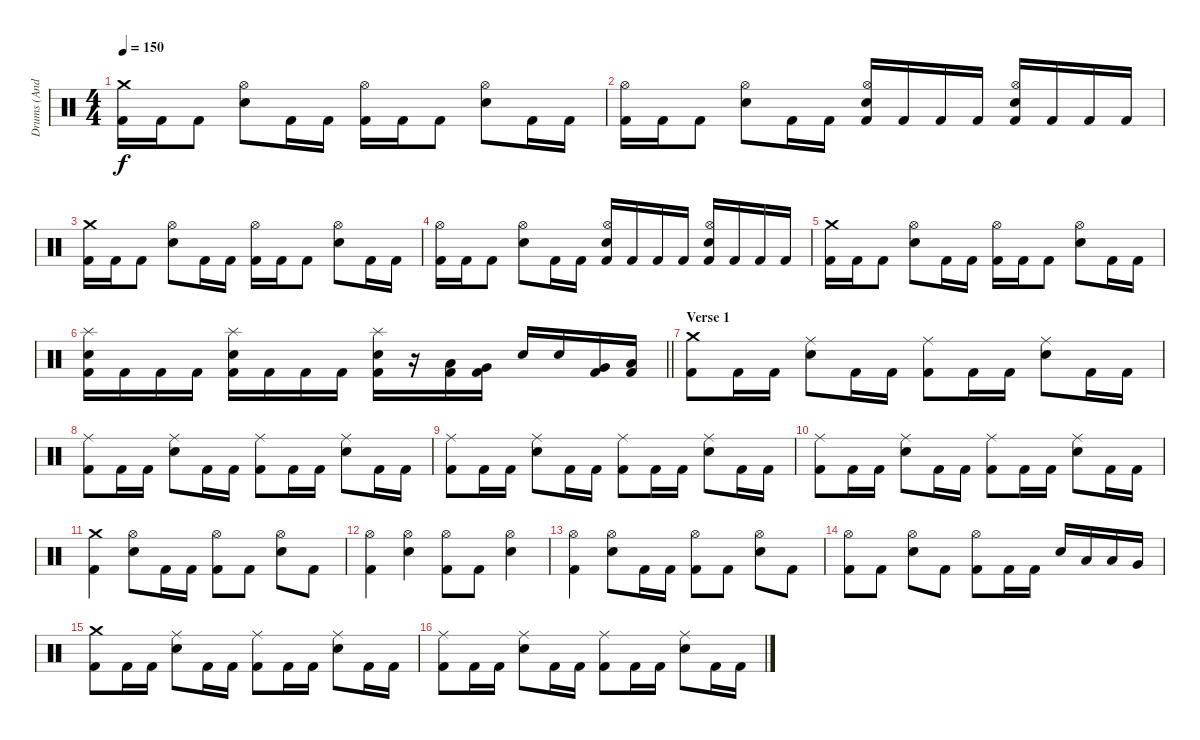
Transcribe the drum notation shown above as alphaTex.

\track ("Drums (Andy C)" "Drums (And") {instrument percussion}
\staff
\articulation defaults
\ts (4 4)
\tempo 150
\clef neutral
\ks c
("Crash medium (hit)" "Kick (hit) 2").16{dy f} "Kick (hit) 2".16 "Kick (hit) 2".8 ("Hi-Hat (open)" "Electric Snare (hit)").8 "Kick (hit) 2".16 "Kick (hit) 2".16 ("Hi-Hat (open)" "Kick (hit) 2").16 "Kick (hit) 2".16 "Kick (hit) 2".8 ("Hi-Hat (open)" "Electric Snare (hit)").8 "Kick (hit) 2".16 "Kick (hit) 2".16 |
("Hi-Hat (open)" "Kick (hit) 2").16 "Kick (hit) 2".16 "Kick (hit) 2".8 ("Hi-Hat (open)" "Electric Snare (hit)").8 "Kick (hit) 2".16 "Kick (hit) 2".16 ("Hi-Hat (open)" "Kick (hit) 2" "Electric Snare (hit)").16 "Kick (hit) 2".16 "Kick (hit) 2".16 "Kick (hit) 2".16 ("Hi-Hat (open)" "Kick (hit) 2" "Electric Snare (hit)").16 "Kick (hit) 2".16 "Kick (hit) 2".16 "Kick (hit) 2".16 |
("Crash medium (hit)" "Kick (hit) 2").16 "Kick (hit) 2".16 "Kick (hit) 2".8 ("Hi-Hat (open)" "Electric Snare (hit)").8 "Kick (hit) 2".16 "Kick (hit) 2".16 ("Hi-Hat (open)" "Kick (hit) 2").16 "Kick (hit) 2".16 "Kick (hit) 2".8 ("Hi-Hat (open)" "Electric Snare (hit)").8 "Kick (hit) 2".16 "Kick (hit) 2".16 |
("Hi-Hat (open)" "Kick (hit) 2").16 "Kick (hit) 2".16 "Kick (hit) 2".8 ("Hi-Hat (open)" "Electric Snare (hit)").8 "Kick (hit) 2".16 "Kick (hit) 2".16 ("Hi-Hat (open)" "Kick (hit) 2" "Electric Snare (hit)").16 "Kick (hit) 2".16 "Kick (hit) 2".16 "Kick (hit) 2".16 ("Hi-Hat (open)" "Kick (hit) 2" "Electric Snare (hit)").16 "Kick (hit) 2".16 "Kick (hit) 2".16 "Kick (hit) 2".16 |
("Crash medium (hit)" "Kick (hit) 2").16 "Kick (hit) 2".16 "Kick (hit) 2".8 ("Hi-Hat (open)" "Electric Snare (hit)").8 "Kick (hit) 2".16 "Kick (hit) 2".16 ("Hi-Hat (open)" "Kick (hit) 2").16 "Kick (hit) 2".16 "Kick (hit) 2".8 ("Hi-Hat (open)" "Electric Snare (hit)").8 "Kick (hit) 2".16 "Kick (hit) 2".16 |
\barLineRight lightlight
("Splash (hit)" "Kick (hit) 2" "Electric Snare (hit)").16 "Kick (hit) 2".16 "Kick (hit) 2".16 "Kick (hit) 2".16 ("Splash (hit)" "Kick (hit) 2" "Electric Snare (hit)").16 "Kick (hit) 2".16 "Kick (hit) 2".16 "Kick (hit) 2".16 ("Splash (hit)" "Kick (hit) 2" "Electric Snare (hit)").16 r.16 ("Low Tom (hit)" "Kick (hit) 2").16 ("Very Low Tom (hit)" "Kick (hit) 2").16 "Electric Snare (hit)".16 "Electric Snare (hit)".16 ("Very Low Tom (hit)" "Kick (hit) 2").16 ("Low Floor Tom (hit)" "Kick (hit) 2").16 |
\section ("" "Verse 1")
("Crash medium (hit)" "Kick (hit) 2").8 "Kick (hit) 2".16 "Kick (hit) 2".16 ("Ride (middle)" "Electric Snare (hit)").8 "Kick (hit) 2".16 "Kick (hit) 2".16 ("Ride (middle)" "Kick (hit) 2").8 "Kick (hit) 2".16 "Kick (hit) 2".16 ("Ride (middle)" "Electric Snare (hit)").8 "Kick (hit) 2".16 "Kick (hit) 2".16 |
("Ride (middle)" "Kick (hit) 2").8 "Kick (hit) 2".16 "Kick (hit) 2".16 ("Ride (middle)" "Electric Snare (hit)").8 "Kick (hit) 2".16 "Kick (hit) 2".16 ("Ride (middle)" "Kick (hit) 2").8 "Kick (hit) 2".16 "Kick (hit) 2".16 ("Ride (middle)" "Electric Snare (hit)").8 "Kick (hit) 2".16 "Kick (hit) 2".16 |
("Ride (middle)" "Kick (hit) 2").8 "Kick (hit) 2".16 "Kick (hit) 2".16 ("Ride (middle)" "Electric Snare (hit)").8 "Kick (hit) 2".16 "Kick (hit) 2".16 ("Ride (middle)" "Kick (hit) 2").8 "Kick (hit) 2".16 "Kick (hit) 2".16 ("Ride (middle)" "Electric Snare (hit)").8 "Kick (hit) 2".16 "Kick (hit) 2".16 |
("Ride (middle)" "Kick (hit) 2").8 "Kick (hit) 2".16 "Kick (hit) 2".16 ("Ride (middle)" "Electric Snare (hit)").8 "Kick (hit) 2".16 "Kick (hit) 2".16 ("Ride (middle)" "Kick (hit) 2").8 "Kick (hit) 2".16 "Kick (hit) 2".16 ("Ride (middle)" "Electric Snare (hit)").8 "Kick (hit) 2".16 "Kick (hit) 2".16 |
("Crash medium (hit)" "Kick (hit) 2").4 ("Hi-Hat (open)" "Electric Snare (hit)").8 "Kick (hit) 2".16 "Kick (hit) 2".16 ("Hi-Hat (open)" "Kick (hit) 2").8 "Kick (hit) 2".8 ("Hi-Hat (open)" "Electric Snare (hit)").8 "Kick (hit) 2".8 |
("Hi-Hat (open)" "Kick (hit) 2").4 ("Hi-Hat (open)" "Electric Snare (hit)").4 ("Hi-Hat (open)" "Kick (hit) 2").8 "Kick (hit) 2".8 ("Hi-Hat (open)" "Electric Snare (hit)").4 |
("Hi-Hat (open)" "Kick (hit) 2").4 ("Hi-Hat (open)" "Electric Snare (hit)").8 "Kick (hit) 2".16 "Kick (hit) 2".16 ("Hi-Hat (open)" "Kick (hit) 2").8 "Kick (hit) 2".8 ("Hi-Hat (open)" "Electric Snare (hit)").8 "Kick (hit) 2".8 |
("Hi-Hat (open)" "Kick (hit) 2").8 "Kick (hit) 2".8 ("Hi-Hat (open)" "Electric Snare (hit)").8 "Kick (hit) 2".8 ("Hi-Hat (open)" "Kick (hit) 2").8 "Kick (hit) 2".16 "Kick (hit) 2".16 "Electric Snare (hit)".16 "Low Tom (hit)".16 "Low Tom (hit)".16 "Very Low Tom (hit)".16 |
("Crash medium (hit)" "Kick (hit) 2").8 "Kick (hit) 2".16 "Kick (hit) 2".16 ("Ride (middle)" "Electric Snare (hit)").8 "Kick (hit) 2".16 "Kick (hit) 2".16 ("Ride (middle)" "Kick (hit) 2").8 "Kick (hit) 2".16 "Kick (hit) 2".16 ("Ride (middle)" "Electric Snare (hit)").8 "Kick (hit) 2".16 "Kick (hit) 2".16 |
("Ride (middle)" "Kick (hit) 2").8 "Kick (hit) 2".16 "Kick (hit) 2".16 ("Ride (middle)" "Electric Snare (hit)").8 "Kick (hit) 2".16 "Kick (hit) 2".16 ("Ride (middle)" "Kick (hit) 2").8 "Kick (hit) 2".16 "Kick (hit) 2".16 ("Ride (middle)" "Electric Snare (hit)").8 "Kick (hit) 2".16 "Kick (hit) 2".16
